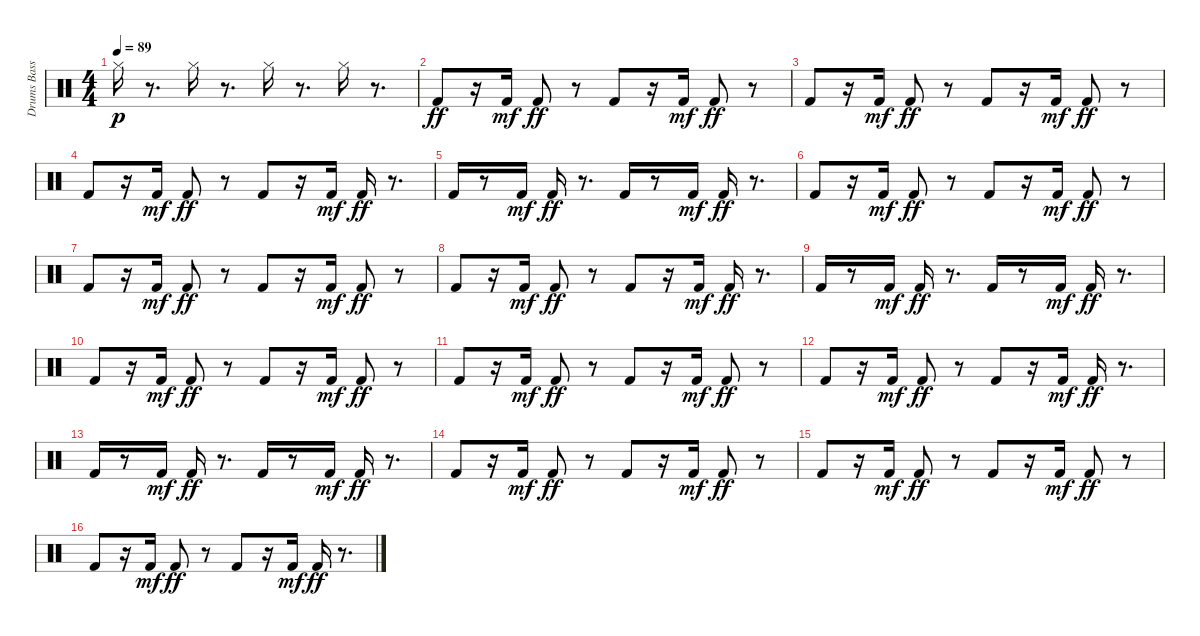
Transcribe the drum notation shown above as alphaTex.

\track ("Drums Bass" "Drums Bass") {instrument percussion}
\staff {score}
\articulation defaults
\ts (4 4)
\tempo 89
\clef neutral
\ks c "Hi-Hat (closed)".16{dy p}
r.8{d} "Hi-Hat (closed)".16 r.8{d} "Hi-Hat (closed)".16 r.8{d} "Hi-Hat (closed)".16 r.8{d} |
"Kick (hit) 2".8{dy ff} r.16 "Kick (hit) 2".16{dy mf} "Kick (hit) 2".8{dy ff} r.8 "Kick (hit) 2".8 r.16 "Kick (hit) 2".16{dy mf} "Kick (hit) 2".8{dy ff} r.8 |
"Kick (hit) 2".8 r.16 "Kick (hit) 2".16{dy mf} "Kick (hit) 2".8{dy ff} r.8 "Kick (hit) 2".8 r.16 "Kick (hit) 2".16{dy mf} "Kick (hit) 2".8{dy ff} r.8 |
"Kick (hit) 2".8 r.16 "Kick (hit) 2".16{dy mf} "Kick (hit) 2".8{dy ff} r.8 "Kick (hit) 2".8 r.16 "Kick (hit) 2".16{dy mf} "Kick (hit) 2".16{dy ff} r.8{d} |
"Kick (hit) 2".16 r.8 "Kick (hit) 2".16{dy mf} "Kick (hit) 2".16{dy ff} r.8{d} "Kick (hit) 2".16 r.8 "Kick (hit) 2".16{dy mf} "Kick (hit) 2".16{dy ff} r.8{d} |
"Kick (hit) 2".8 r.16 "Kick (hit) 2".16{dy mf} "Kick (hit) 2".8{dy ff} r.8 "Kick (hit) 2".8 r.16 "Kick (hit) 2".16{dy mf} "Kick (hit) 2".8{dy ff} r.8 |
"Kick (hit) 2".8 r.16 "Kick (hit) 2".16{dy mf} "Kick (hit) 2".8{dy ff} r.8 "Kick (hit) 2".8 r.16 "Kick (hit) 2".16{dy mf} "Kick (hit) 2".8{dy ff} r.8 |
"Kick (hit) 2".8 r.16 "Kick (hit) 2".16{dy mf} "Kick (hit) 2".8{dy ff} r.8 "Kick (hit) 2".8 r.16 "Kick (hit) 2".16{dy mf} "Kick (hit) 2".16{dy ff} r.8{d} |
"Kick (hit) 2".16 r.8 "Kick (hit) 2".16{dy mf} "Kick (hit) 2".16{dy ff} r.8{d} "Kick (hit) 2".16 r.8 "Kick (hit) 2".16{dy mf} "Kick (hit) 2".16{dy ff} r.8{d} |
"Kick (hit) 2".8 r.16 "Kick (hit) 2".16{dy mf} "Kick (hit) 2".8{dy ff} r.8 "Kick (hit) 2".8 r.16 "Kick (hit) 2".16{dy mf} "Kick (hit) 2".8{dy ff} r.8 |
"Kick (hit) 2".8 r.16 "Kick (hit) 2".16{dy mf} "Kick (hit) 2".8{dy ff} r.8 "Kick (hit) 2".8 r.16 "Kick (hit) 2".16{dy mf} "Kick (hit) 2".8{dy ff} r.8 |
"Kick (hit) 2".8 r.16 "Kick (hit) 2".16{dy mf} "Kick (hit) 2".8{dy ff} r.8 "Kick (hit) 2".8 r.16 "Kick (hit) 2".16{dy mf} "Kick (hit) 2".16{dy ff} r.8{d} |
"Kick (hit) 2".16 r.8 "Kick (hit) 2".16{dy mf} "Kick (hit) 2".16{dy ff} r.8{d} "Kick (hit) 2".16 r.8 "Kick (hit) 2".16{dy mf} "Kick (hit) 2".16{dy ff} r.8{d} |
"Kick (hit) 2".8 r.16 "Kick (hit) 2".16{dy mf} "Kick (hit) 2".8{dy ff} r.8 "Kick (hit) 2".8 r.16 "Kick (hit) 2".16{dy mf} "Kick (hit) 2".8{dy ff} r.8 |
"Kick (hit) 2".8 r.16 "Kick (hit) 2".16{dy mf} "Kick (hit) 2".8{dy ff} r.8 "Kick (hit) 2".8 r.16 "Kick (hit) 2".16{dy mf} "Kick (hit) 2".8{dy ff} r.8 |
"Kick (hit) 2".8 r.16 "Kick (hit) 2".16{dy mf} "Kick (hit) 2".8{dy ff} r.8 "Kick (hit) 2".8 r.16 "Kick (hit) 2".16{dy mf} "Kick (hit) 2".16{dy ff} r.8{d}
